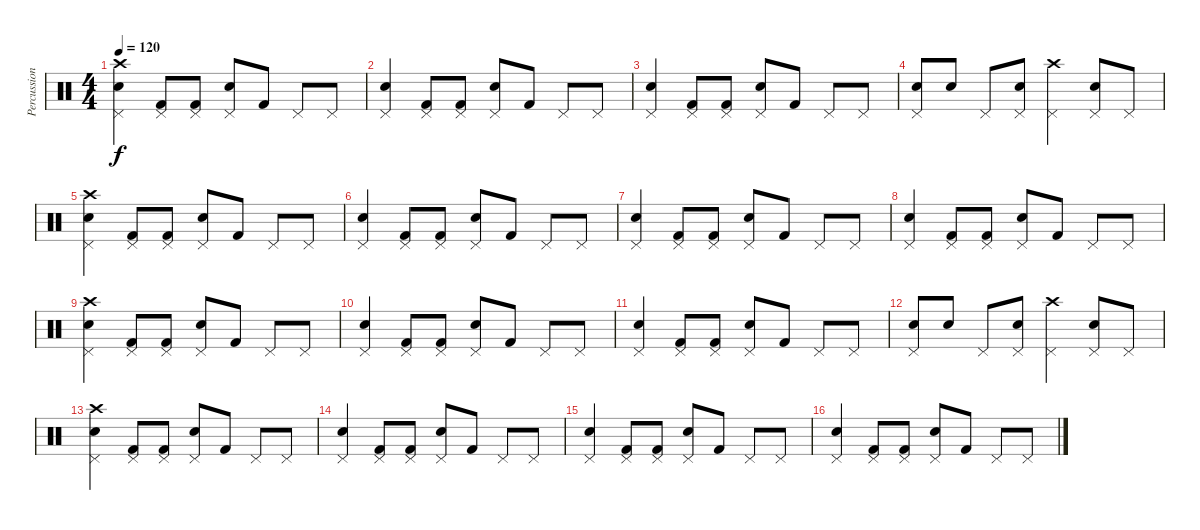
\track ("Percussion" "Percussion") {instrument percussion}
\staff {score}
\articulation defaults
\ts (4 4)
\tempo 120
\clef neutral
\ks c
("Pedal Hi-Hat (hit)" "Electric Snare (hit)" "Crash high (hit)").4{dy f} ("Pedal Hi-Hat (hit)" "Kick (hit) 2").8 ("Pedal Hi-Hat (hit)" "Kick (hit) 2").8 ("Pedal Hi-Hat (hit)" "Electric Snare (hit)").8 "Kick (hit) 2".8 "Pedal Hi-Hat (hit)".8 "Pedal Hi-Hat (hit)".8 |
("Pedal Hi-Hat (hit)" "Electric Snare (hit)").4 ("Pedal Hi-Hat (hit)" "Kick (hit) 2").8 ("Pedal Hi-Hat (hit)" "Kick (hit) 2").8 ("Pedal Hi-Hat (hit)" "Electric Snare (hit)").8 "Kick (hit) 2".8 "Pedal Hi-Hat (hit)".8 "Pedal Hi-Hat (hit)".8 |
("Pedal Hi-Hat (hit)" "Electric Snare (hit)").4 ("Pedal Hi-Hat (hit)" "Kick (hit) 2").8 ("Pedal Hi-Hat (hit)" "Kick (hit) 2").8 ("Pedal Hi-Hat (hit)" "Electric Snare (hit)").8 "Kick (hit) 2".8 "Pedal Hi-Hat (hit)".8 "Pedal Hi-Hat (hit)".8 |
("Pedal Hi-Hat (hit)" "Electric Snare (hit)").8 "Electric Snare (hit)".8 "Pedal Hi-Hat (hit)".8 ("Pedal Hi-Hat (hit)" "Electric Snare (hit)").8 ("Pedal Hi-Hat (hit)" "Crash high (hit)").4 ("Pedal Hi-Hat (hit)" "Electric Snare (hit)").8 "Pedal Hi-Hat (hit)".8 |
("Pedal Hi-Hat (hit)" "Electric Snare (hit)" "Crash high (hit)").4 ("Pedal Hi-Hat (hit)" "Kick (hit) 2").8 ("Pedal Hi-Hat (hit)" "Kick (hit) 2").8 ("Pedal Hi-Hat (hit)" "Electric Snare (hit)").8 "Kick (hit) 2".8 "Pedal Hi-Hat (hit)".8 "Pedal Hi-Hat (hit)".8 |
("Pedal Hi-Hat (hit)" "Electric Snare (hit)").4 ("Pedal Hi-Hat (hit)" "Kick (hit) 2").8 ("Pedal Hi-Hat (hit)" "Kick (hit) 2").8 ("Pedal Hi-Hat (hit)" "Electric Snare (hit)").8 "Kick (hit) 2".8 "Pedal Hi-Hat (hit)".8 "Pedal Hi-Hat (hit)".8 |
("Pedal Hi-Hat (hit)" "Electric Snare (hit)").4 ("Pedal Hi-Hat (hit)" "Kick (hit) 2").8 ("Pedal Hi-Hat (hit)" "Kick (hit) 2").8 ("Pedal Hi-Hat (hit)" "Electric Snare (hit)").8 "Kick (hit) 2".8 "Pedal Hi-Hat (hit)".8 "Pedal Hi-Hat (hit)".8 |
("Pedal Hi-Hat (hit)" "Electric Snare (hit)").4 ("Pedal Hi-Hat (hit)" "Kick (hit) 2").8 ("Pedal Hi-Hat (hit)" "Kick (hit) 2").8 ("Pedal Hi-Hat (hit)" "Electric Snare (hit)").8 "Kick (hit) 2".8 "Pedal Hi-Hat (hit)".8 "Pedal Hi-Hat (hit)".8 |
("Pedal Hi-Hat (hit)" "Electric Snare (hit)" "Crash high (hit)").4 ("Pedal Hi-Hat (hit)" "Kick (hit) 2").8 ("Pedal Hi-Hat (hit)" "Kick (hit) 2").8 ("Pedal Hi-Hat (hit)" "Electric Snare (hit)").8 "Kick (hit) 2".8 "Pedal Hi-Hat (hit)".8 "Pedal Hi-Hat (hit)".8 |
("Pedal Hi-Hat (hit)" "Electric Snare (hit)").4 ("Pedal Hi-Hat (hit)" "Kick (hit) 2").8 ("Pedal Hi-Hat (hit)" "Kick (hit) 2").8 ("Pedal Hi-Hat (hit)" "Electric Snare (hit)").8 "Kick (hit) 2".8 "Pedal Hi-Hat (hit)".8 "Pedal Hi-Hat (hit)".8 |
("Pedal Hi-Hat (hit)" "Electric Snare (hit)").4 ("Pedal Hi-Hat (hit)" "Kick (hit) 2").8 ("Pedal Hi-Hat (hit)" "Kick (hit) 2").8 ("Pedal Hi-Hat (hit)" "Electric Snare (hit)").8 "Kick (hit) 2".8 "Pedal Hi-Hat (hit)".8 "Pedal Hi-Hat (hit)".8 |
("Pedal Hi-Hat (hit)" "Electric Snare (hit)").8 "Electric Snare (hit)".8 "Pedal Hi-Hat (hit)".8 ("Pedal Hi-Hat (hit)" "Electric Snare (hit)").8 ("Pedal Hi-Hat (hit)" "Crash high (hit)").4 ("Pedal Hi-Hat (hit)" "Electric Snare (hit)").8 "Pedal Hi-Hat (hit)".8 |
("Pedal Hi-Hat (hit)" "Electric Snare (hit)" "Crash high (hit)").4 ("Pedal Hi-Hat (hit)" "Kick (hit) 2").8 ("Pedal Hi-Hat (hit)" "Kick (hit) 2").8 ("Pedal Hi-Hat (hit)" "Electric Snare (hit)").8 "Kick (hit) 2".8 "Pedal Hi-Hat (hit)".8 "Pedal Hi-Hat (hit)".8 |
("Pedal Hi-Hat (hit)" "Electric Snare (hit)").4 ("Pedal Hi-Hat (hit)" "Kick (hit) 2").8 ("Pedal Hi-Hat (hit)" "Kick (hit) 2").8 ("Pedal Hi-Hat (hit)" "Electric Snare (hit)").8 "Kick (hit) 2".8 "Pedal Hi-Hat (hit)".8 "Pedal Hi-Hat (hit)".8 |
("Pedal Hi-Hat (hit)" "Electric Snare (hit)").4 ("Pedal Hi-Hat (hit)" "Kick (hit) 2").8 ("Pedal Hi-Hat (hit)" "Kick (hit) 2").8 ("Pedal Hi-Hat (hit)" "Electric Snare (hit)").8 "Kick (hit) 2".8 "Pedal Hi-Hat (hit)".8 "Pedal Hi-Hat (hit)".8 |
("Pedal Hi-Hat (hit)" "Electric Snare (hit)").4 ("Pedal Hi-Hat (hit)" "Kick (hit) 2").8 ("Pedal Hi-Hat (hit)" "Kick (hit) 2").8 ("Pedal Hi-Hat (hit)" "Electric Snare (hit)").8 "Kick (hit) 2".8 "Pedal Hi-Hat (hit)".8 "Pedal Hi-Hat (hit)".8
